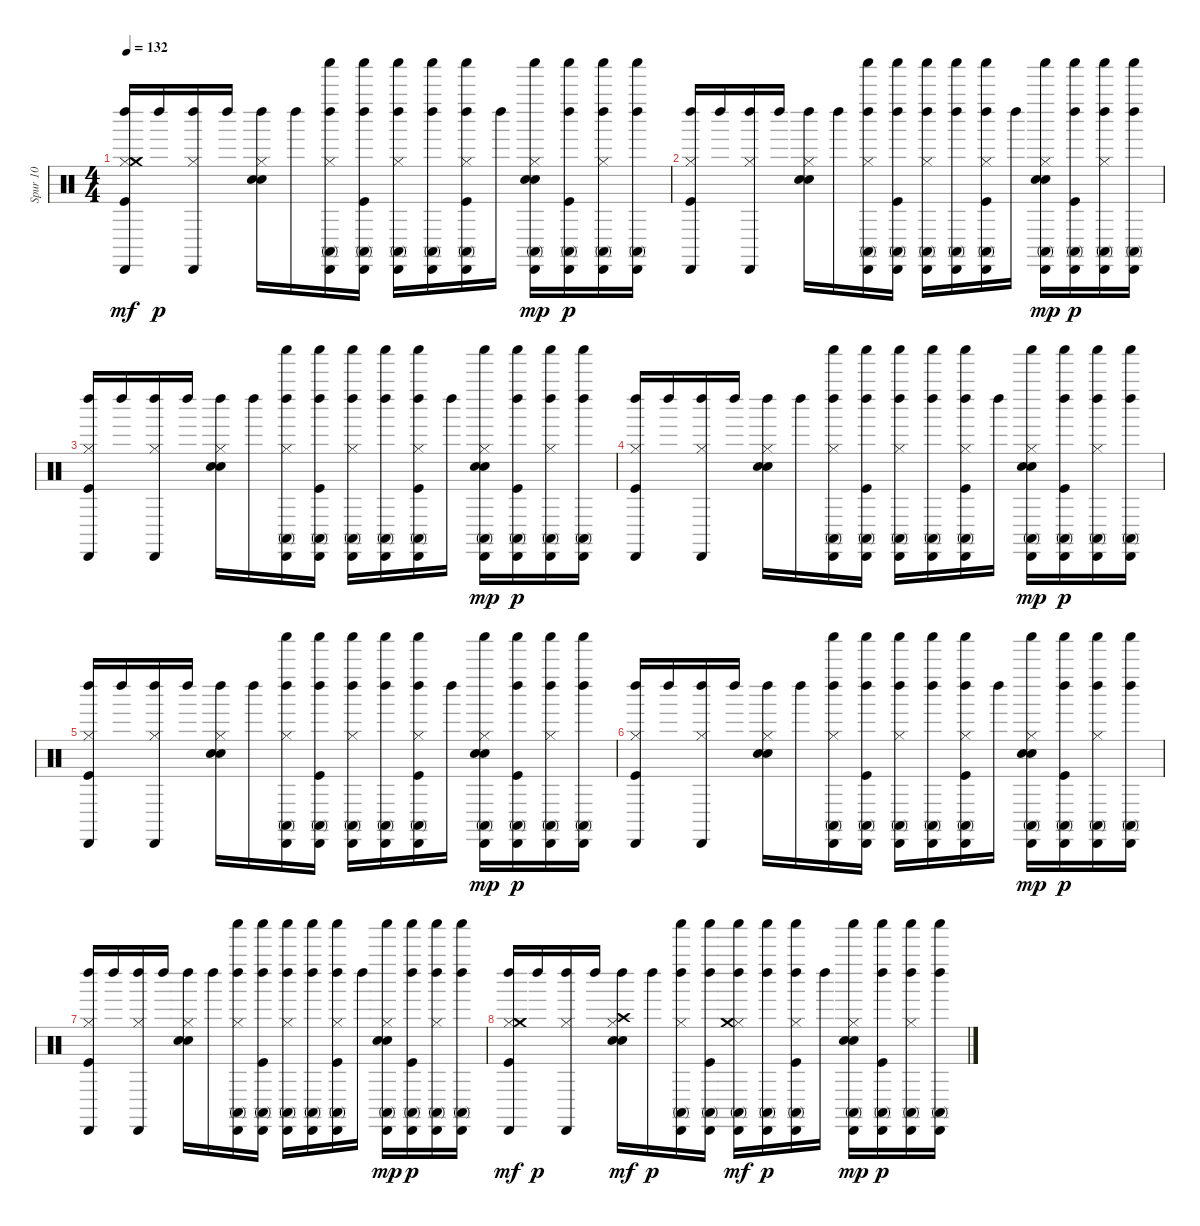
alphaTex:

\track ("Spur 10" "Spur 10") {instrument percussion}
\staff {score}
\articulation defaults
\ts (4 4)
\tempo 132
\clef neutral
\ks c
("Kick (hit)" "Hi-Hat (closed)" "Left Maraca (hit)" "Cabasa (hit)" "Crash medium (hit)").16{dy mf} "Left Maraca (hit)".16{dy p} ("Hi-Hat (closed)" "Left Maraca (hit)" "Cabasa (hit)").16 "Left Maraca (hit)".16 ("Hi-Hat (closed)" "Snare (hit) 2" "Hand Clap (hit)" "Left Maraca (hit)").16 "Left Maraca (hit)".16 ("Shaker (hit)" "Hi-Hat (closed)" "Cabasa (hit)" "Conga high (mute)" "Left Maraca (hit)").16 ("Shaker (hit)" "Kick (hit)" "Cabasa (hit)" "Conga high (mute)" "Left Maraca (hit)").16 ("Shaker (hit)" "Hi-Hat (closed)" "Cabasa (hit)" "Conga high (mute)" "Left Maraca (hit)").16 ("Shaker (hit)" "Cabasa (hit)" "Conga high (mute)" "Left Maraca (hit)").16 ("Shaker (hit)" "Kick (hit)" "Hi-Hat (closed)" "Cabasa (hit)" "Conga high (mute)" "Left Maraca (hit)").16 "Left Maraca (hit)".16 ("Shaker (hit)" "Hi-Hat (closed)" "Snare (hit) 2" "Cabasa (hit)" "Conga high (mute)" "Hand Clap (hit)").16{dy mp} ("Shaker (hit)" "Kick (hit)" "Cabasa (hit)" "Conga high (mute)" "Left Maraca (hit)").16{dy p} ("Shaker (hit)" "Hi-Hat (closed)" "Cabasa (hit)" "Conga high (mute)" "Left Maraca (hit)").16 ("Shaker (hit)" "Cabasa (hit)" "Conga high (mute)" "Left Maraca (hit)").16 |
("Kick (hit)" "Hi-Hat (closed)" "Cabasa (hit)" "Left Maraca (hit)").16 "Left Maraca (hit)".16 ("Hi-Hat (closed)" "Cabasa (hit)" "Left Maraca (hit)").16 "Left Maraca (hit)".16 ("Hi-Hat (closed)" "Snare (hit) 2" "Hand Clap (hit)" "Left Maraca (hit)").16 "Left Maraca (hit)".16 ("Shaker (hit)" "Hi-Hat (closed)" "Cabasa (hit)" "Conga high (mute)" "Left Maraca (hit)").16 ("Shaker (hit)" "Kick (hit)" "Cabasa (hit)" "Conga high (mute)" "Left Maraca (hit)").16 ("Shaker (hit)" "Hi-Hat (closed)" "Cabasa (hit)" "Conga high (mute)" "Left Maraca (hit)").16 ("Shaker (hit)" "Cabasa (hit)" "Conga high (mute)" "Left Maraca (hit)").16 ("Shaker (hit)" "Kick (hit)" "Hi-Hat (closed)" "Cabasa (hit)" "Conga high (mute)" "Left Maraca (hit)").16 "Left Maraca (hit)".16 ("Shaker (hit)" "Hi-Hat (closed)" "Snare (hit) 2" "Cabasa (hit)" "Conga high (mute)" "Hand Clap (hit)").16{dy mp} ("Shaker (hit)" "Kick (hit)" "Cabasa (hit)" "Conga high (mute)" "Left Maraca (hit)").16{dy p} ("Shaker (hit)" "Hi-Hat (closed)" "Cabasa (hit)" "Conga high (mute)" "Left Maraca (hit)").16 ("Shaker (hit)" "Cabasa (hit)" "Conga high (mute)" "Left Maraca (hit)").16 |
("Kick (hit)" "Hi-Hat (closed)" "Cabasa (hit)" "Left Maraca (hit)").16 "Left Maraca (hit)".16 ("Hi-Hat (closed)" "Cabasa (hit)" "Left Maraca (hit)").16 "Left Maraca (hit)".16 ("Hi-Hat (closed)" "Snare (hit) 2" "Hand Clap (hit)" "Left Maraca (hit)").16 "Left Maraca (hit)".16 ("Shaker (hit)" "Hi-Hat (closed)" "Conga high (mute)" "Cabasa (hit)" "Left Maraca (hit)").16 ("Shaker (hit)" "Kick (hit)" "Conga high (mute)" "Cabasa (hit)" "Left Maraca (hit)").16 ("Shaker (hit)" "Hi-Hat (closed)" "Conga high (mute)" "Cabasa (hit)" "Left Maraca (hit)").16 ("Shaker (hit)" "Conga high (mute)" "Cabasa (hit)" "Left Maraca (hit)").16 ("Shaker (hit)" "Kick (hit)" "Hi-Hat (closed)" "Conga high (mute)" "Cabasa (hit)" "Left Maraca (hit)").16 "Left Maraca (hit)".16 ("Shaker (hit)" "Hi-Hat (closed)" "Snare (hit) 2" "Conga high (mute)" "Cabasa (hit)" "Hand Clap (hit)").16{dy mp} ("Shaker (hit)" "Kick (hit)" "Conga high (mute)" "Cabasa (hit)" "Left Maraca (hit)").16{dy p} ("Shaker (hit)" "Hi-Hat (closed)" "Conga high (mute)" "Cabasa (hit)" "Left Maraca (hit)").16 ("Shaker (hit)" "Conga high (mute)" "Cabasa (hit)" "Left Maraca (hit)").16 |
("Kick (hit)" "Hi-Hat (closed)" "Cabasa (hit)" "Left Maraca (hit)").16 "Left Maraca (hit)".16 ("Hi-Hat (closed)" "Cabasa (hit)" "Left Maraca (hit)").16 "Left Maraca (hit)".16 ("Hi-Hat (closed)" "Snare (hit) 2" "Hand Clap (hit)" "Left Maraca (hit)").16 "Left Maraca (hit)".16 ("Shaker (hit)" "Hi-Hat (closed)" "Conga high (mute)" "Cabasa (hit)" "Left Maraca (hit)").16 ("Shaker (hit)" "Kick (hit)" "Conga high (mute)" "Cabasa (hit)" "Left Maraca (hit)").16 ("Shaker (hit)" "Hi-Hat (closed)" "Conga high (mute)" "Cabasa (hit)" "Left Maraca (hit)").16 ("Shaker (hit)" "Conga high (mute)" "Cabasa (hit)" "Left Maraca (hit)").16 ("Shaker (hit)" "Kick (hit)" "Hi-Hat (closed)" "Conga high (mute)" "Cabasa (hit)" "Left Maraca (hit)").16 "Left Maraca (hit)".16 ("Shaker (hit)" "Hi-Hat (closed)" "Snare (hit) 2" "Conga high (mute)" "Cabasa (hit)" "Hand Clap (hit)").16{dy mp} ("Shaker (hit)" "Kick (hit)" "Conga high (mute)" "Cabasa (hit)" "Left Maraca (hit)").16{dy p} ("Shaker (hit)" "Hi-Hat (closed)" "Conga high (mute)" "Cabasa (hit)" "Left Maraca (hit)").16 ("Shaker (hit)" "Conga high (mute)" "Cabasa (hit)" "Left Maraca (hit)").16 |
("Kick (hit)" "Hi-Hat (closed)" "Left Maraca (hit)" "Cabasa (hit)").16 "Left Maraca (hit)".16 ("Hi-Hat (closed)" "Left Maraca (hit)" "Cabasa (hit)").16 "Left Maraca (hit)".16 ("Hi-Hat (closed)" "Snare (hit) 2" "Hand Clap (hit)" "Left Maraca (hit)").16 "Left Maraca (hit)".16 ("Shaker (hit)" "Hi-Hat (closed)" "Cabasa (hit)" "Conga high (mute)" "Left Maraca (hit)").16 ("Shaker (hit)" "Kick (hit)" "Cabasa (hit)" "Conga high (mute)" "Left Maraca (hit)").16 ("Shaker (hit)" "Hi-Hat (closed)" "Cabasa (hit)" "Conga high (mute)" "Left Maraca (hit)").16 ("Shaker (hit)" "Cabasa (hit)" "Conga high (mute)" "Left Maraca (hit)").16 ("Shaker (hit)" "Kick (hit)" "Hi-Hat (closed)" "Cabasa (hit)" "Conga high (mute)" "Left Maraca (hit)").16 "Left Maraca (hit)".16 ("Shaker (hit)" "Hi-Hat (closed)" "Snare (hit) 2" "Cabasa (hit)" "Conga high (mute)" "Hand Clap (hit)").16{dy mp} ("Shaker (hit)" "Kick (hit)" "Cabasa (hit)" "Conga high (mute)" "Left Maraca (hit)").16{dy p} ("Shaker (hit)" "Hi-Hat (closed)" "Cabasa (hit)" "Conga high (mute)" "Left Maraca (hit)").16 ("Shaker (hit)" "Cabasa (hit)" "Conga high (mute)" "Left Maraca (hit)").16 |
("Kick (hit)" "Hi-Hat (closed)" "Cabasa (hit)" "Left Maraca (hit)").16 "Left Maraca (hit)".16 ("Hi-Hat (closed)" "Cabasa (hit)" "Left Maraca (hit)").16 "Left Maraca (hit)".16 ("Hi-Hat (closed)" "Snare (hit) 2" "Hand Clap (hit)" "Left Maraca (hit)").16 "Left Maraca (hit)".16 ("Shaker (hit)" "Hi-Hat (closed)" "Conga high (mute)" "Cabasa (hit)" "Left Maraca (hit)").16 ("Shaker (hit)" "Kick (hit)" "Conga high (mute)" "Cabasa (hit)" "Left Maraca (hit)").16 ("Shaker (hit)" "Hi-Hat (closed)" "Conga high (mute)" "Cabasa (hit)" "Left Maraca (hit)").16 ("Shaker (hit)" "Conga high (mute)" "Cabasa (hit)" "Left Maraca (hit)").16 ("Shaker (hit)" "Kick (hit)" "Hi-Hat (closed)" "Conga high (mute)" "Cabasa (hit)" "Left Maraca (hit)").16 "Left Maraca (hit)".16 ("Shaker (hit)" "Hi-Hat (closed)" "Snare (hit) 2" "Conga high (mute)" "Cabasa (hit)" "Hand Clap (hit)").16{dy mp} ("Shaker (hit)" "Kick (hit)" "Conga high (mute)" "Cabasa (hit)" "Left Maraca (hit)").16{dy p} ("Shaker (hit)" "Hi-Hat (closed)" "Conga high (mute)" "Cabasa (hit)" "Left Maraca (hit)").16 ("Shaker (hit)" "Conga high (mute)" "Cabasa (hit)" "Left Maraca (hit)").16 |
("Kick (hit)" "Hi-Hat (closed)" "Cabasa (hit)" "Left Maraca (hit)").16 "Left Maraca (hit)".16 ("Hi-Hat (closed)" "Cabasa (hit)" "Left Maraca (hit)").16 "Left Maraca (hit)".16 ("Hi-Hat (closed)" "Snare (hit) 2" "Hand Clap (hit)" "Left Maraca (hit)").16 "Left Maraca (hit)".16 ("Shaker (hit)" "Hi-Hat (closed)" "Cabasa (hit)" "Conga high (mute)" "Left Maraca (hit)").16 ("Shaker (hit)" "Kick (hit)" "Cabasa (hit)" "Conga high (mute)" "Left Maraca (hit)").16 ("Shaker (hit)" "Hi-Hat (closed)" "Cabasa (hit)" "Conga high (mute)" "Left Maraca (hit)").16 ("Shaker (hit)" "Cabasa (hit)" "Conga high (mute)" "Left Maraca (hit)").16 ("Shaker (hit)" "Kick (hit)" "Hi-Hat (closed)" "Cabasa (hit)" "Conga high (mute)" "Left Maraca (hit)").16 "Left Maraca (hit)".16 ("Shaker (hit)" "Hi-Hat (closed)" "Snare (hit) 2" "Cabasa (hit)" "Conga high (mute)" "Hand Clap (hit)").16{dy mp} ("Shaker (hit)" "Kick (hit)" "Cabasa (hit)" "Conga high (mute)" "Left Maraca (hit)").16{dy p} ("Shaker (hit)" "Hi-Hat (closed)" "Cabasa (hit)" "Conga high (mute)" "Left Maraca (hit)").16 ("Shaker (hit)" "Cabasa (hit)" "Conga high (mute)" "Left Maraca (hit)").16 |
("Kick (hit)" "Hi-Hat (closed)" "Cabasa (hit)" "Left Maraca (hit)" "Crash medium (hit)").16{dy mf} "Left Maraca (hit)".16{dy p} ("Hi-Hat (closed)" "Cabasa (hit)" "Left Maraca (hit)").16 "Left Maraca (hit)".16 ("Hi-Hat (closed)" "Snare (hit) 2" "Hand Clap (hit)" "Left Maraca (hit)" "Crash high (hit)").16{dy mf} "Left Maraca (hit)".16{dy p} ("Shaker (hit)" "Hi-Hat (closed)" "Cabasa (hit)" "Conga high (mute)" "Left Maraca (hit)").16 ("Shaker (hit)" "Kick (hit)" "Cabasa (hit)" "Conga high (mute)" "Left Maraca (hit)").16 ("Shaker (hit)" "Hi-Hat (closed)" "Cabasa (hit)" "Conga high (mute)" "Left Maraca (hit)" "Crash medium (hit)").16{dy mf} ("Shaker (hit)" "Cabasa (hit)" "Conga high (mute)" "Left Maraca (hit)").16{dy p} ("Shaker (hit)" "Kick (hit)" "Hi-Hat (closed)" "Cabasa (hit)" "Conga high (mute)" "Left Maraca (hit)").16 "Left Maraca (hit)".16 ("Shaker (hit)" "Hi-Hat (closed)" "Snare (hit) 2" "Cabasa (hit)" "Conga high (mute)" "Hand Clap (hit)").16{dy mp} ("Shaker (hit)" "Kick (hit)" "Cabasa (hit)" "Conga high (mute)" "Left Maraca (hit)").16{dy p} ("Shaker (hit)" "Hi-Hat (closed)" "Cabasa (hit)" "Conga high (mute)" "Left Maraca (hit)").16 ("Shaker (hit)" "Cabasa (hit)" "Conga high (mute)" "Left Maraca (hit)").16
